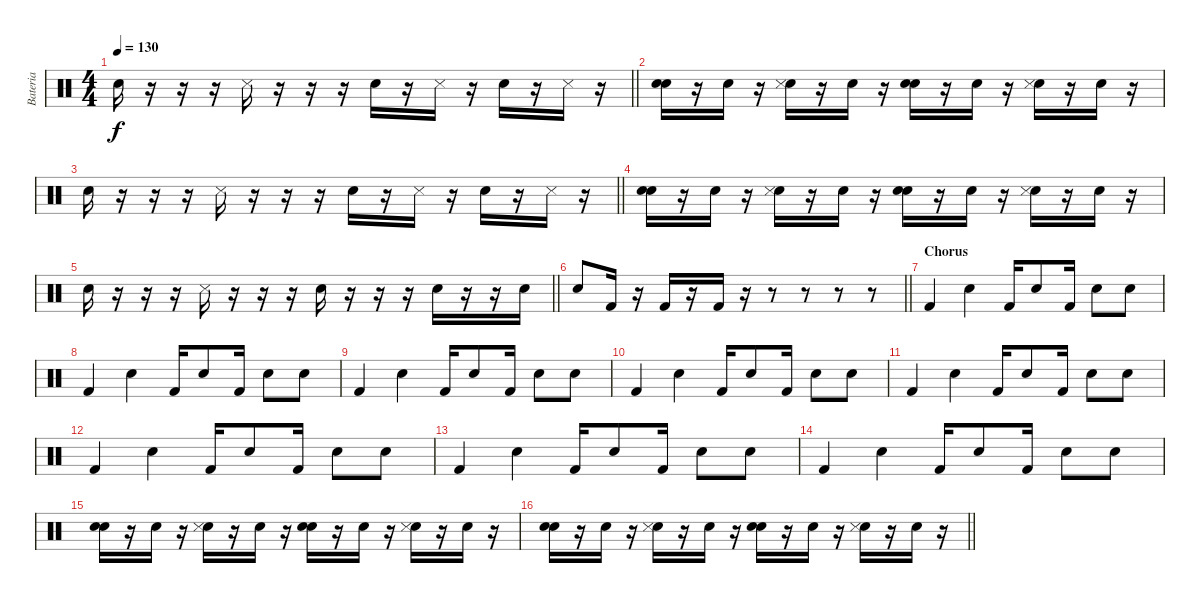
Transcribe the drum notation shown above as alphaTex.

\track ("Bateria" "Bateria") {instrument percussion}
\staff {score}
\articulation defaults
\ts (4 4)
\tempo 130
\clef neutral
\barLineRight lightlight
\ks c "Snare (hit) 2".16{dy f}
r.16 r.16 r.16 "Snare (side stick) 3".16 r.16 r.16 r.16 "Snare (hit) 2".16 r.16 "Snare (side stick) 3".16 r.16 "Snare (hit) 2".16 r.16 "Snare (side stick) 3".16 r.16 |
("Snare (hit) 2" "Snare (hit) 2").16 r.16 "Snare (hit) 2".16 r.16 ("Snare (hit) 2" "Snare (side stick) 3").16 r.16 "Snare (hit) 2".16 r.16 ("Snare (hit) 2" "Snare (hit) 2").16 r.16 "Snare (hit) 2".16 r.16 ("Snare (hit) 2" "Snare (side stick) 3").16 r.16 "Snare (hit) 2".16 r.16 |
\barLineRight lightlight "Snare (hit) 2".16
r.16 r.16 r.16 "Snare (side stick) 3".16 r.16 r.16 r.16 "Snare (hit) 2".16 r.16 "Snare (side stick) 3".16 r.16 "Snare (hit) 2".16 r.16 "Snare (side stick) 3".16 r.16 |
("Snare (hit) 2" "Snare (hit) 2").16 r.16 "Snare (hit) 2".16 r.16 ("Snare (hit) 2" "Snare (side stick) 3").16 r.16 "Snare (hit) 2".16 r.16 ("Snare (hit) 2" "Snare (hit) 2").16 r.16 "Snare (hit) 2".16 r.16 ("Snare (hit) 2" "Snare (side stick) 3").16 r.16 "Snare (hit) 2".16 r.16 |
\barLineRight lightlight "Snare (hit) 2".16
r.16 r.16 r.16 "Snare (side stick) 3".16 r.16 r.16 r.16 "Snare (hit) 2".16 r.16 r.16 r.16 "Snare (hit) 2".16 r.16 r.16 "Snare (hit) 2".16 |
\barLineRight lightlight "Snare (hit) 2".8 "Kick (hit) 2".16
r.16 "Kick (hit) 2".16 r.16 "Kick (hit) 2".16 r.16 r.8 r.8 r.8 r.8 |
\section ("" "Chorus")
"Kick (hit) 2".4 "Snare (hit) 2".4 "Kick (hit) 2".16 "Snare (hit) 2".8 "Kick (hit) 2".16 "Snare (hit) 2".8 "Snare (hit) 2".8 |
"Kick (hit) 2".4 "Snare (hit) 2".4 "Kick (hit) 2".16 "Snare (hit) 2".8 "Kick (hit) 2".16 "Snare (hit) 2".8 "Snare (hit) 2".8 |
"Kick (hit) 2".4 "Snare (hit) 2".4 "Kick (hit) 2".16 "Snare (hit) 2".8 "Kick (hit) 2".16 "Snare (hit) 2".8 "Snare (hit) 2".8 |
"Kick (hit) 2".4 "Snare (hit) 2".4 "Kick (hit) 2".16 "Snare (hit) 2".8 "Kick (hit) 2".16 "Snare (hit) 2".8 "Snare (hit) 2".8 |
"Kick (hit) 2".4 "Snare (hit) 2".4 "Kick (hit) 2".16 "Snare (hit) 2".8 "Kick (hit) 2".16 "Snare (hit) 2".8 "Snare (hit) 2".8 |
"Kick (hit) 2".4 "Snare (hit) 2".4 "Kick (hit) 2".16 "Snare (hit) 2".8 "Kick (hit) 2".16 "Snare (hit) 2".8 "Snare (hit) 2".8 |
"Kick (hit) 2".4 "Snare (hit) 2".4 "Kick (hit) 2".16 "Snare (hit) 2".8 "Kick (hit) 2".16 "Snare (hit) 2".8 "Snare (hit) 2".8 |
"Kick (hit) 2".4 "Snare (hit) 2".4 "Kick (hit) 2".16 "Snare (hit) 2".8 "Kick (hit) 2".16 "Snare (hit) 2".8 "Snare (hit) 2".8 |
("Snare (hit) 2" "Snare (hit) 2").16 r.16 "Snare (hit) 2".16 r.16 ("Snare (hit) 2" "Snare (side stick) 3").16 r.16 "Snare (hit) 2".16 r.16 ("Snare (hit) 2" "Snare (hit) 2").16 r.16 "Snare (hit) 2".16 r.16 ("Snare (hit) 2" "Snare (side stick) 3").16 r.16 "Snare (hit) 2".16 r.16 |
\barLineRight lightlight
("Snare (hit) 2" "Snare (hit) 2").16 r.16 "Snare (hit) 2".16 r.16 ("Snare (hit) 2" "Snare (side stick) 3").16 r.16 "Snare (hit) 2".16 r.16 ("Snare (hit) 2" "Snare (hit) 2").16 r.16 "Snare (hit) 2".16 r.16 ("Snare (hit) 2" "Snare (side stick) 3").16 r.16 "Snare (hit) 2".16 r.16
